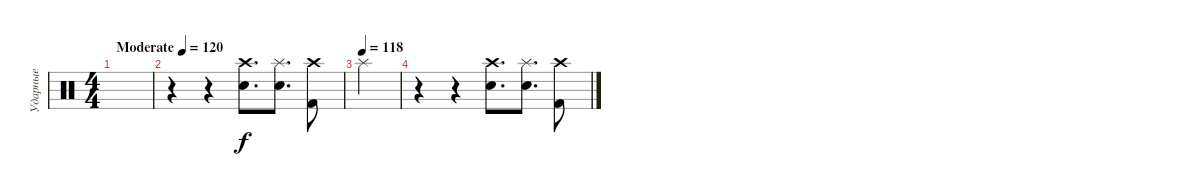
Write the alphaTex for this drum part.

\track ("Ударные" "Ударные") {instrument percussion}
\staff {score}
\articulation defaults
\ts (4 4)
\tempo (120 "Moderate")
\tempo 116
\tempo (120 "Moderate")
\clef neutral
\ks c
|
r.4 r.4 ("Crash high (hit)" "Snare (hit) 2").8{d} ("Splash (hit)" "Snare (hit) 2").8{d} ("Crash high (hit)" "Kick (hit) 2").8 |
\tempo (118)
"Splash (hit)".4 |
r.4 r.4 ("Crash high (hit)" "Snare (hit) 2").8{d} ("Splash (hit)" "Snare (hit) 2").8{d} ("Crash high (hit)" "Kick (hit) 2").8
